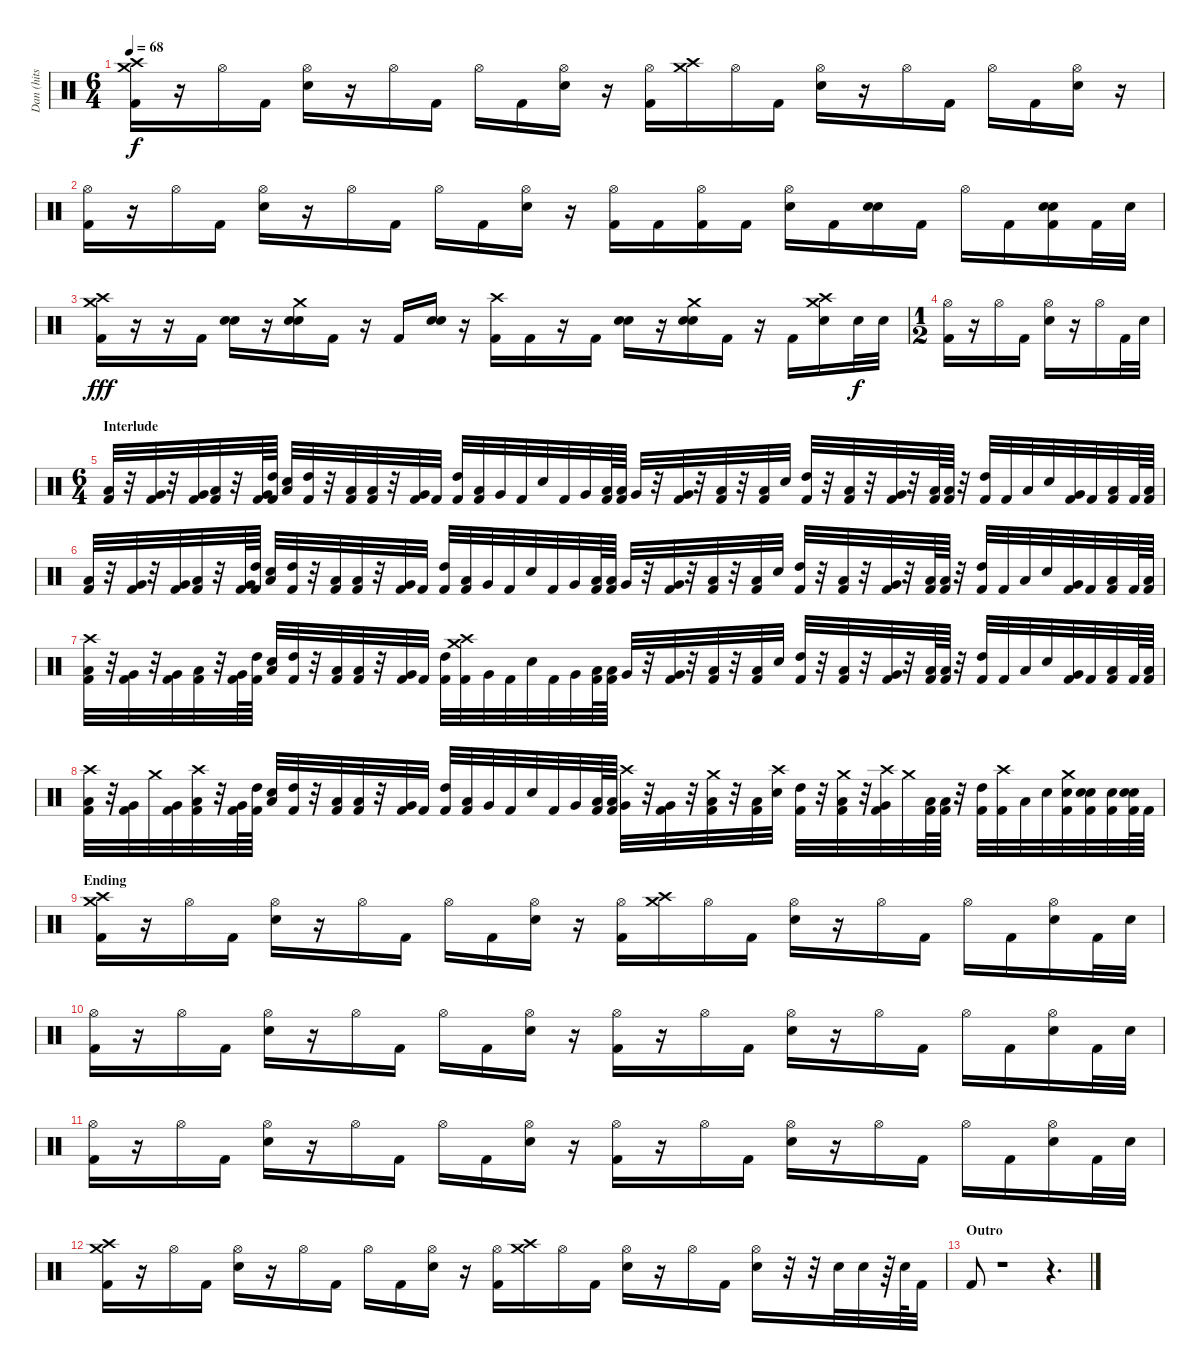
\track ("Dan (hits stuff. hard)" "Dan (hits ") {instrument percussion}
\staff {score}
\articulation defaults
\ts (6 4)
\tempo 68
\clef neutral
\ks c
("Crash medium (hit)" "Crash high (hit)" "Kick (hit) 2").16{dy f} r.16 "Hi-Hat (open)".16 "Kick (hit) 2".16 ("Hi-Hat (open)" "Electric Snare (hit)").16 r.16 "Hi-Hat (open)".16 "Kick (hit) 2".16 "Hi-Hat (open)".16 "Kick (hit) 2".16 ("Hi-Hat (open)" "Electric Snare (hit)").16 r.16 ("Hi-Hat (open)" "Kick (hit) 2").16 ("Crash medium (hit)" "Crash high (hit)").16 "Hi-Hat (open)".16 "Kick (hit) 2".16 ("Hi-Hat (open)" "Electric Snare (hit)").16 r.16 "Hi-Hat (open)".16 "Kick (hit) 2".16 "Hi-Hat (open)".16 "Kick (hit) 2".16 ("Hi-Hat (open)" "Electric Snare (hit)").16 r.16 |
("Hi-Hat (open)" "Kick (hit) 2").16 r.16 "Hi-Hat (open)".16 "Kick (hit) 2".16 ("Hi-Hat (open)" "Electric Snare (hit)").16 r.16 "Hi-Hat (open)".16 "Kick (hit) 2".16 "Hi-Hat (open)".16 "Kick (hit) 2".16 ("Hi-Hat (open)" "Electric Snare (hit)").16 r.16 ("Hi-Hat (open)" "Kick (hit) 2").16 "Kick (hit) 2".16 ("Hi-Hat (open)" "Kick (hit) 2").16 "Kick (hit) 2".16 ("Hi-Hat (open)" "Electric Snare (hit)").16 "Kick (hit) 2".16 ("Electric Snare (hit)" "Electric Snare (hit)").16 "Kick (hit) 2".16 "Hi-Hat (open)".16 "Kick (hit) 2".16 ("Electric Snare (hit)" "Electric Snare (hit)" "Kick (hit) 2").16 "Kick (hit) 2".32 "Electric Snare (hit)".32 |
("Crash high (hit)" "Crash medium (hit)" "Kick (hit) 2").16{dy fff} r.16 r.16 "Kick (hit) 2".16 ("Electric Snare (hit)" "Electric Snare (hit)").16 r.16 ("Crash medium (hit)" "Electric Snare (hit)" "Electric Snare (hit)").16 "Kick (hit) 2".16 r.16 "Kick (hit) 2".16 ("Electric Snare (hit)" "Electric Snare (hit)").16 r.16 ("Crash high (hit)" "Kick (hit) 2").16 "Kick (hit) 2".16 r.16 "Kick (hit) 2".16 ("Electric Snare (hit)" "Electric Snare (hit)").16 r.16 ("Crash medium (hit)" "Electric Snare (hit)" "Electric Snare (hit)").16 "Kick (hit) 2".16 r.16 "Kick (hit) 2".16 ("Crash medium (hit)" "Crash high (hit)" "Electric Snare (hit)").16 "Electric Snare (hit)".32{dy f} "Electric Snare (hit)".32 |
\ts (1 2)
("Hi-Hat (open)" "Kick (hit) 2").16 r.16 "Hi-Hat (open)".16 "Kick (hit) 2".16 ("Hi-Hat (open)" "Electric Snare (hit)").16 r.16 "Hi-Hat (open)".16 "Kick (hit) 2".32 "Electric Snare (hit)".32 |
\ts (6 4)
\section ("" "Interlude")
("Low Tom (hit)" "Kick (hit) 2").32 r.32 ("Very Low Tom (hit)" "Kick (hit) 2").32 r.32 ("Very Low Tom (hit)" "Kick (hit) 2").32 ("Low Tom (hit)" "Kick (hit) 2").32 r.32 ("Very Low Tom (hit)" "Kick (hit) 2").64 ("High Tom (hit)" "Kick (hit) 2").64 ("Low Tom (hit)" "Electric Snare (hit)").32 ("High Tom (hit)" "Kick (hit) 2").32 r.32 ("Low Tom (hit)" "Kick (hit) 2").32 ("Low Tom (hit)" "Kick (hit) 2").32 r.32 ("Very Low Tom (hit)" "Kick (hit) 2").32 "Kick (hit) 2".32 ("High Tom (hit)" "Kick (hit) 2").32 ("Low Tom (hit)" "Kick (hit) 2").32 "Very Low Tom (hit)".32 "Kick (hit) 2".32 "Electric Snare (hit)".32 "Kick (hit) 2".32 "Very Low Tom (hit)".32 ("Low Tom (hit)" "Kick (hit) 2").64 ("Low Tom (hit)" "Kick (hit) 2").64 "Very Low Tom (hit)".32 r.32 ("Very Low Tom (hit)" "Kick (hit) 2").32 r.32 ("Low Floor Tom (hit)" "Kick (hit) 2").32 r.32 ("Low Tom (hit)" "Kick (hit) 2").32 "Electric Snare (hit)".32 ("High Tom (hit)" "Kick (hit) 2").32 r.32 ("Low Tom (hit)" "Kick (hit) 2").32 r.32 ("Very Low Tom (hit)" "Kick (hit) 2").32 r.32 ("Low Floor Tom (hit)" "Kick (hit) 2").64 ("Low Floor Tom (hit)" "Kick (hit) 2").64 r.32 ("High Tom (hit)" "Kick (hit) 2").32 "Kick (hit) 2".32 "Low Tom (hit)".32 "Electric Snare (hit)".32 ("Very Low Tom (hit)" "Kick (hit) 2").32 "Kick (hit) 2".32 ("Low Floor Tom (hit)" "Kick (hit) 2").32 "Kick (hit) 2".64 ("Low Floor Tom (hit)" "Kick (hit) 2").64 |
("Low Tom (hit)" "Kick (hit) 2").32 r.32 ("Very Low Tom (hit)" "Kick (hit) 2").32 r.32 ("Very Low Tom (hit)" "Kick (hit) 2").32 ("Low Tom (hit)" "Kick (hit) 2").32 r.32 ("Very Low Tom (hit)" "Kick (hit) 2").64 ("High Tom (hit)" "Kick (hit) 2").64 ("Low Tom (hit)" "Electric Snare (hit)").32 ("High Tom (hit)" "Kick (hit) 2").32 r.32 ("Low Tom (hit)" "Kick (hit) 2").32 ("Low Tom (hit)" "Kick (hit) 2").32 r.32 ("Very Low Tom (hit)" "Kick (hit) 2").32 "Kick (hit) 2".32 ("High Tom (hit)" "Kick (hit) 2").32 ("Low Tom (hit)" "Kick (hit) 2").32 "Very Low Tom (hit)".32 "Kick (hit) 2".32 "Electric Snare (hit)".32 "Kick (hit) 2".32 "Very Low Tom (hit)".32 ("Low Tom (hit)" "Kick (hit) 2").64 ("Low Tom (hit)" "Kick (hit) 2").64 "Very Low Tom (hit)".32 r.32 ("Very Low Tom (hit)" "Kick (hit) 2").32 r.32 ("Low Floor Tom (hit)" "Kick (hit) 2").32 r.32 ("Low Tom (hit)" "Kick (hit) 2").32 "Electric Snare (hit)".32 ("High Tom (hit)" "Kick (hit) 2").32 r.32 ("Low Tom (hit)" "Kick (hit) 2").32 r.32 ("Very Low Tom (hit)" "Kick (hit) 2").32 r.32 ("Low Floor Tom (hit)" "Kick (hit) 2").64 ("Low Floor Tom (hit)" "Kick (hit) 2").64 r.32 ("High Tom (hit)" "Kick (hit) 2").32 "Kick (hit) 2".32 "Low Tom (hit)".32 "Electric Snare (hit)".32 ("Very Low Tom (hit)" "Kick (hit) 2").32 "Kick (hit) 2".32 ("Low Floor Tom (hit)" "Kick (hit) 2").32 "Kick (hit) 2".64 ("Low Floor Tom (hit)" "Kick (hit) 2").64 |
("Crash high (hit)" "Low Tom (hit)" "Kick (hit) 2").32 r.32 ("Very Low Tom (hit)" "Kick (hit) 2").32 r.32 ("Very Low Tom (hit)" "Kick (hit) 2").32 ("Low Tom (hit)" "Kick (hit) 2").32 r.32 ("Very Low Tom (hit)" "Kick (hit) 2").64 ("High Tom (hit)" "Kick (hit) 2").64 ("Low Tom (hit)" "Electric Snare (hit)").32 ("High Tom (hit)" "Kick (hit) 2").32 r.32 ("Low Tom (hit)" "Kick (hit) 2").32 ("Low Tom (hit)" "Kick (hit) 2").32 r.32 ("Very Low Tom (hit)" "Kick (hit) 2").32 "Kick (hit) 2".32 ("High Tom (hit)" "Kick (hit) 2").32 ("Crash high (hit)" "Crash medium (hit)" "Kick (hit) 2").32 "Very Low Tom (hit)".32 "Kick (hit) 2".32 "Electric Snare (hit)".32 "Kick (hit) 2".32 "Very Low Tom (hit)".32 ("Low Tom (hit)" "Kick (hit) 2").64 ("Low Tom (hit)" "Kick (hit) 2").64 "Very Low Tom (hit)".32 r.32 ("Very Low Tom (hit)" "Kick (hit) 2").32 r.32 ("Low Floor Tom (hit)" "Kick (hit) 2").32 r.32 ("Low Tom (hit)" "Kick (hit) 2").32 "Electric Snare (hit)".32 ("High Tom (hit)" "Kick (hit) 2").32 r.32 ("Low Tom (hit)" "Kick (hit) 2").32 r.32 ("Very Low Tom (hit)" "Kick (hit) 2").32 r.32 ("Low Floor Tom (hit)" "Kick (hit) 2").64 ("Low Floor Tom (hit)" "Kick (hit) 2").64 r.32 ("High Tom (hit)" "Kick (hit) 2").32 "Kick (hit) 2".32 "Low Tom (hit)".32 "Electric Snare (hit)".32 ("Very Low Tom (hit)" "Kick (hit) 2").32 "Kick (hit) 2".32 ("Low Floor Tom (hit)" "Kick (hit) 2").32 "Kick (hit) 2".64 ("Low Floor Tom (hit)" "Kick (hit) 2").64 |
("Crash high (hit)" "Low Tom (hit)" "Kick (hit) 2").32 r.32 ("Very Low Tom (hit)" "Kick (hit) 2").32 "Crash medium (hit)".32 ("Very Low Tom (hit)" "Kick (hit) 2").32 ("Crash high (hit)" "Low Tom (hit)" "Kick (hit) 2").32 r.32 ("Very Low Tom (hit)" "Kick (hit) 2").64 ("High Tom (hit)" "Kick (hit) 2").64 ("Low Tom (hit)" "Electric Snare (hit)").32 ("High Tom (hit)" "Kick (hit) 2").32 r.32 ("Low Tom (hit)" "Kick (hit) 2").32 ("Low Tom (hit)" "Kick (hit) 2").32 r.32 ("Very Low Tom (hit)" "Kick (hit) 2").32 "Kick (hit) 2".32 ("High Tom (hit)" "Kick (hit) 2").32 ("Low Tom (hit)" "Kick (hit) 2").32 "Very Low Tom (hit)".32 "Kick (hit) 2".32 "Electric Snare (hit)".32 "Kick (hit) 2".32 "Very Low Tom (hit)".32 ("Low Tom (hit)" "Kick (hit) 2").64 ("Low Tom (hit)" "Kick (hit) 2").64 ("Crash high (hit)" "Very Low Tom (hit)").32 r.32 ("Very Low Tom (hit)" "Kick (hit) 2").32 r.32 ("Crash medium (hit)" "Low Floor Tom (hit)" "Kick (hit) 2").32 r.32 ("Low Tom (hit)" "Kick (hit) 2").32 ("Crash high (hit)" "Electric Snare (hit)").32 ("High Tom (hit)" "Kick (hit) 2").32 r.32 ("Crash medium (hit)" "Low Tom (hit)" "Kick (hit) 2").32 r.32 ("Crash high (hit)" "Very Low Tom (hit)" "Kick (hit) 2").32 "Crash medium (hit)".32 ("Low Floor Tom (hit)" "Kick (hit) 2").64 ("Low Floor Tom (hit)" "Kick (hit) 2").64 r.32 ("High Tom (hit)" "Kick (hit) 2").32 ("Crash high (hit)" "Kick (hit) 2").32 "Low Tom (hit)".32 "Electric Snare (hit)".32 ("Crash medium (hit)" "Electric Snare (hit)" "Kick (hit) 2").32 ("Electric Snare (hit)" "Electric Snare (hit)" "Kick (hit) 2").32 ("Electric Snare (hit)" "Kick (hit) 2").32 ("Electric Snare (hit)" "Electric Snare (hit)" "Kick (hit) 2").64 "Kick (hit) 2".64 |
\section ("" "Ending")
("Crash medium (hit)" "Crash high (hit)" "Kick (hit) 2").16 r.16 "Hi-Hat (open)".16 "Kick (hit) 2".16 ("Hi-Hat (open)" "Electric Snare (hit)").16 r.16 "Hi-Hat (open)".16 "Kick (hit) 2".16 "Hi-Hat (open)".16 "Kick (hit) 2".16 ("Hi-Hat (open)" "Electric Snare (hit)").16 r.16 ("Hi-Hat (open)" "Kick (hit) 2").16 ("Crash medium (hit)" "Crash high (hit)").16 "Hi-Hat (open)".16 "Kick (hit) 2".16 ("Hi-Hat (open)" "Electric Snare (hit)").16 r.16 "Hi-Hat (open)".16 "Kick (hit) 2".16 "Hi-Hat (open)".16 "Kick (hit) 2".16 ("Hi-Hat (open)" "Electric Snare (hit)").16 "Kick (hit) 2".32 "Electric Snare (hit)".32 |
("Hi-Hat (open)" "Kick (hit) 2").16 r.16 "Hi-Hat (open)".16 "Kick (hit) 2".16 ("Hi-Hat (open)" "Electric Snare (hit)").16 r.16 "Hi-Hat (open)".16 "Kick (hit) 2".16 "Hi-Hat (open)".16 "Kick (hit) 2".16 ("Hi-Hat (open)" "Electric Snare (hit)").16 r.16 ("Hi-Hat (open)" "Kick (hit) 2").16 r.16 "Hi-Hat (open)".16 "Kick (hit) 2".16 ("Hi-Hat (open)" "Electric Snare (hit)").16 r.16 "Hi-Hat (open)".16 "Kick (hit) 2".16 "Hi-Hat (open)".16 "Kick (hit) 2".16 ("Hi-Hat (open)" "Electric Snare (hit)").16 "Kick (hit) 2".32 "Electric Snare (hit)".32 |
("Hi-Hat (open)" "Kick (hit) 2").16 r.16 "Hi-Hat (open)".16 "Kick (hit) 2".16 ("Hi-Hat (open)" "Electric Snare (hit)").16 r.16 "Hi-Hat (open)".16 "Kick (hit) 2".16 "Hi-Hat (open)".16 "Kick (hit) 2".16 ("Hi-Hat (open)" "Electric Snare (hit)").16 r.16 ("Hi-Hat (open)" "Kick (hit) 2").16 r.16 "Hi-Hat (open)".16 "Kick (hit) 2".16 ("Hi-Hat (open)" "Electric Snare (hit)").16 r.16 "Hi-Hat (open)".16 "Kick (hit) 2".16 "Hi-Hat (open)".16 "Kick (hit) 2".16 ("Hi-Hat (open)" "Electric Snare (hit)").16 "Kick (hit) 2".32 "Electric Snare (hit)".32 |
("Crash medium (hit)" "Crash high (hit)" "Kick (hit) 2").16 r.16 "Hi-Hat (open)".16 "Kick (hit) 2".16 ("Hi-Hat (open)" "Electric Snare (hit)").16 r.16 "Hi-Hat (open)".16 "Kick (hit) 2".16 "Hi-Hat (open)".16 "Kick (hit) 2".16 ("Hi-Hat (open)" "Electric Snare (hit)").16 r.16 ("Hi-Hat (open)" "Kick (hit) 2").16 ("Crash medium (hit)" "Crash high (hit)").16 "Hi-Hat (open)".16 "Kick (hit) 2".16 ("Hi-Hat (open)" "Electric Snare (hit)").16 r.16 "Hi-Hat (open)".16 "Kick (hit) 2".16 ("Hi-Hat (open)" "Electric Snare (hit)").16 r.32 r.32 "Electric Snare (hit)".32 "Electric Snare (hit)".32 r.64 "Electric Snare (hit)".64 "Kick (hit) 2".32 |
\section ("" "Outro")
"Kick (hit) 2".8 r.1 r.4{d}
